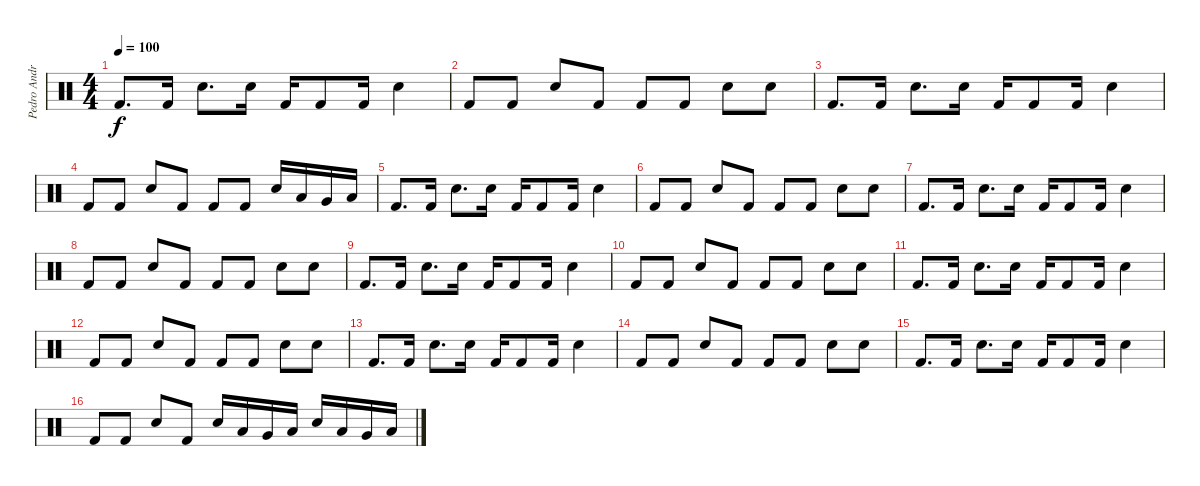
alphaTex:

\track ("Pedro Andreu" "Pedro Andr") {instrument percussion}
\staff {score}
\articulation defaults
\ts (4 4)
\tempo 100
\clef neutral
\ks c "Kick (hit) 2".8{d dy f} "Kick (hit) 2".16 "Snare (hit) 2".8{d} "Snare (hit) 2".16 "Kick (hit) 2".16 "Kick (hit) 2".8 "Kick (hit) 2".16 "Snare (hit) 2".4
|
"Kick (hit) 2".8 "Kick (hit) 2".8 "Snare (hit) 2".8 "Kick (hit) 2".8 "Kick (hit) 2".8 "Kick (hit) 2".8 "Snare (hit) 2".8 "Snare (hit) 2".8 |
"Kick (hit) 2".8{d} "Kick (hit) 2".16 "Snare (hit) 2".8{d} "Snare (hit) 2".16 "Kick (hit) 2".16 "Kick (hit) 2".8 "Kick (hit) 2".16 "Snare (hit) 2".4 |
"Kick (hit) 2".8 "Kick (hit) 2".8 "Snare (hit) 2".8 "Kick (hit) 2".8 "Kick (hit) 2".8 "Kick (hit) 2".8 "Snare (hit) 2".16 "Low Tom (hit)".16 "Very Low Tom (hit)".16 "Low Floor Tom (hit)".16 |
"Kick (hit) 2".8{d} "Kick (hit) 2".16 "Snare (hit) 2".8{d} "Snare (hit) 2".16 "Kick (hit) 2".16 "Kick (hit) 2".8 "Kick (hit) 2".16 "Snare (hit) 2".4 |
"Kick (hit) 2".8 "Kick (hit) 2".8 "Snare (hit) 2".8 "Kick (hit) 2".8 "Kick (hit) 2".8 "Kick (hit) 2".8 "Snare (hit) 2".8 "Snare (hit) 2".8 |
"Kick (hit) 2".8{d} "Kick (hit) 2".16 "Snare (hit) 2".8{d} "Snare (hit) 2".16 "Kick (hit) 2".16 "Kick (hit) 2".8 "Kick (hit) 2".16 "Snare (hit) 2".4 |
"Kick (hit) 2".8 "Kick (hit) 2".8 "Snare (hit) 2".8 "Kick (hit) 2".8 "Kick (hit) 2".8 "Kick (hit) 2".8 "Snare (hit) 2".8 "Snare (hit) 2".8 |
"Kick (hit) 2".8{d} "Kick (hit) 2".16 "Snare (hit) 2".8{d} "Snare (hit) 2".16 "Kick (hit) 2".16 "Kick (hit) 2".8 "Kick (hit) 2".16 "Snare (hit) 2".4 |
"Kick (hit) 2".8 "Kick (hit) 2".8 "Snare (hit) 2".8 "Kick (hit) 2".8 "Kick (hit) 2".8 "Kick (hit) 2".8 "Snare (hit) 2".8 "Snare (hit) 2".8 |
"Kick (hit) 2".8{d} "Kick (hit) 2".16 "Snare (hit) 2".8{d} "Snare (hit) 2".16 "Kick (hit) 2".16 "Kick (hit) 2".8 "Kick (hit) 2".16 "Snare (hit) 2".4 |
"Kick (hit) 2".8 "Kick (hit) 2".8 "Snare (hit) 2".8 "Kick (hit) 2".8 "Kick (hit) 2".8 "Kick (hit) 2".8 "Snare (hit) 2".8 "Snare (hit) 2".8 |
"Kick (hit) 2".8{d} "Kick (hit) 2".16 "Snare (hit) 2".8{d} "Snare (hit) 2".16 "Kick (hit) 2".16 "Kick (hit) 2".8 "Kick (hit) 2".16 "Snare (hit) 2".4 |
"Kick (hit) 2".8 "Kick (hit) 2".8 "Snare (hit) 2".8 "Kick (hit) 2".8 "Kick (hit) 2".8 "Kick (hit) 2".8 "Snare (hit) 2".8 "Snare (hit) 2".8 |
"Kick (hit) 2".8{d} "Kick (hit) 2".16 "Snare (hit) 2".8{d} "Snare (hit) 2".16 "Kick (hit) 2".16 "Kick (hit) 2".8 "Kick (hit) 2".16 "Snare (hit) 2".4 |
"Kick (hit) 2".8 "Kick (hit) 2".8 "Snare (hit) 2".8 "Kick (hit) 2".8 "Snare (hit) 2".16 "Low Tom (hit)".16 "Very Low Tom (hit)".16 "Low Floor Tom (hit)".16 "Snare (hit) 2".16 "Low Tom (hit)".16 "Very Low Tom (hit)".16 "Low Floor Tom (hit)".16
